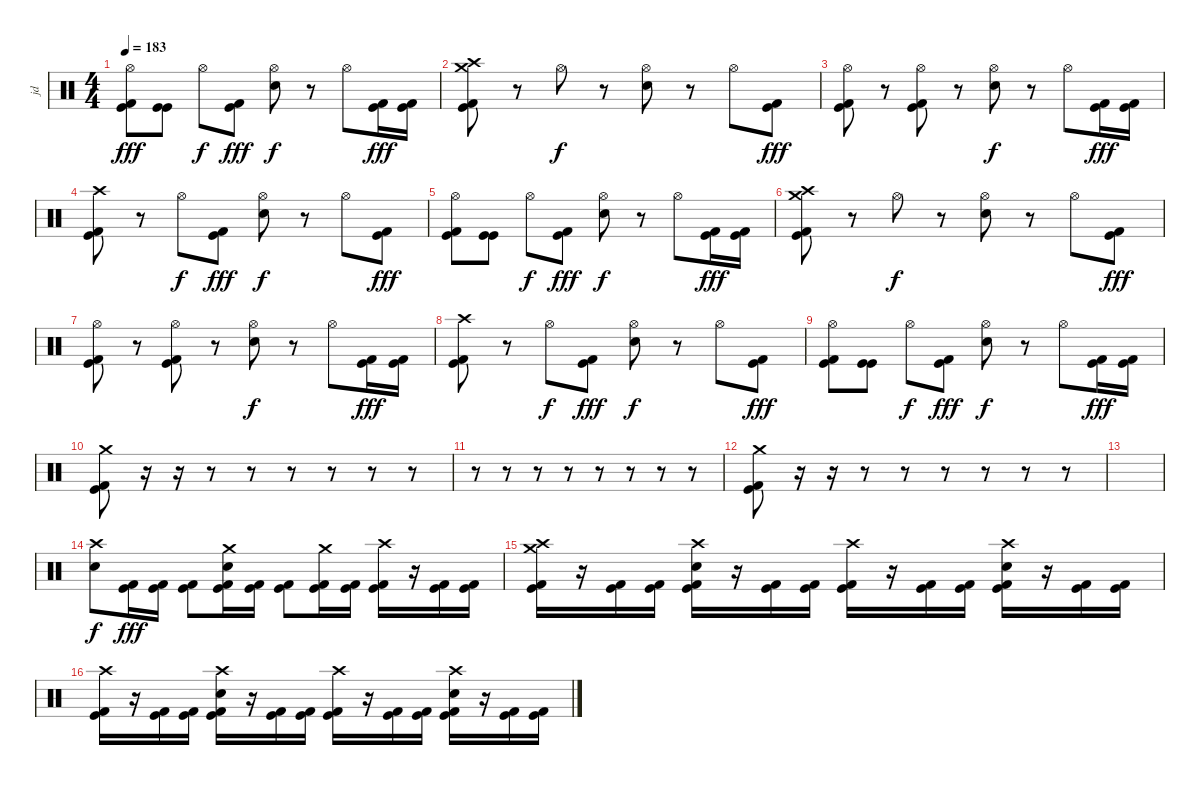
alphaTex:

\track ("jd" "jd") {instrument percussion}
\staff {score}
\articulation defaults
\ts (4 4)
\tempo 183
\clef neutral
\ks c
("Kick (hit)" "Kick (hit) 2" "Hi-Hat (open)").8{dy fff} ("Kick (hit)" "Kick (hit)").8 "Hi-Hat (open)".8{dy f} ("Kick (hit)" "Kick (hit) 2").8{dy fff} ("Electric Snare (hit)" "Hi-Hat (open)").8{dy f} r.8 "Hi-Hat (open)".8 ("Kick (hit)" "Kick (hit) 2").16{dy fff} ("Kick (hit)" "Kick (hit) 2").16 |
("Kick (hit)" "Kick (hit) 2" "Crash high (hit)" "Crash medium (hit)").8 r.8 "Hi-Hat (open)".8{dy f} r.8 ("Electric Snare (hit)" "Hi-Hat (open)").8 r.8 "Hi-Hat (open)".8 ("Kick (hit)" "Kick (hit) 2").8{dy fff} |
("Kick (hit)" "Kick (hit) 2" "Hi-Hat (open)").8 r.8 ("Kick (hit)" "Kick (hit) 2" "Hi-Hat (open)").8 r.8 ("Electric Snare (hit)" "Hi-Hat (open)").8{dy f} r.8 "Hi-Hat (open)".8 ("Kick (hit)" "Kick (hit) 2").16{dy fff} ("Kick (hit)" "Kick (hit) 2").16 |
("Kick (hit)" "Kick (hit) 2" "Crash high (hit)").8 r.8 "Hi-Hat (open)".8{dy f} ("Kick (hit)" "Kick (hit) 2").8{dy fff} ("Electric Snare (hit)" "Hi-Hat (open)").8{dy f} r.8 "Hi-Hat (open)".8 ("Kick (hit)" "Kick (hit) 2").8{dy fff} |
("Kick (hit)" "Kick (hit) 2" "Hi-Hat (open)").8 ("Kick (hit)" "Kick (hit)").8 "Hi-Hat (open)".8{dy f} ("Kick (hit)" "Kick (hit) 2").8{dy fff} ("Electric Snare (hit)" "Hi-Hat (open)").8{dy f} r.8 "Hi-Hat (open)".8 ("Kick (hit)" "Kick (hit) 2").16{dy fff} ("Kick (hit)" "Kick (hit) 2").16 |
("Kick (hit)" "Kick (hit) 2" "Crash high (hit)" "Crash medium (hit)").8 r.8 "Hi-Hat (open)".8{dy f} r.8 ("Electric Snare (hit)" "Hi-Hat (open)").8 r.8 "Hi-Hat (open)".8 ("Kick (hit)" "Kick (hit) 2").8{dy fff} |
("Kick (hit)" "Kick (hit) 2" "Hi-Hat (open)").8 r.8 ("Kick (hit)" "Kick (hit) 2" "Hi-Hat (open)").8 r.8 ("Electric Snare (hit)" "Hi-Hat (open)").8{dy f} r.8 "Hi-Hat (open)".8 ("Kick (hit)" "Kick (hit) 2").16{dy fff} ("Kick (hit)" "Kick (hit) 2").16 |
("Kick (hit)" "Kick (hit) 2" "Crash high (hit)").8 r.8 "Hi-Hat (open)".8{dy f} ("Kick (hit)" "Kick (hit) 2").8{dy fff} ("Electric Snare (hit)" "Hi-Hat (open)").8{dy f} r.8 "Hi-Hat (open)".8 ("Kick (hit)" "Kick (hit) 2").8{dy fff} |
("Kick (hit)" "Kick (hit) 2" "Hi-Hat (open)").8 ("Kick (hit)" "Kick (hit)").8 "Hi-Hat (open)".8{dy f} ("Kick (hit)" "Kick (hit) 2").8{dy fff} ("Electric Snare (hit)" "Hi-Hat (open)").8{dy f} r.8 "Hi-Hat (open)".8 ("Kick (hit)" "Kick (hit) 2").16{dy fff} ("Kick (hit)" "Kick (hit) 2").16 |
("Kick (hit)" "Kick (hit) 2" "Crash medium (hit)").8 r.16 r.16{volume 0} r.8 r.8 r.8 r.8 r.8 r.8 |
r.8 r.8 r.8 r.8 r.8 r.8 r.8 r.8{volume 13} |
("Kick (hit)" "Kick (hit) 2" "Crash medium (hit)").8 r.16 r.16{volume 0} r.8 r.8 r.8 r.8 r.8 r.8{volume 13} |
|
("Electric Snare (hit)" "Crash high (hit)").8{dy f} ("Kick (hit)" "Kick (hit) 2").16{dy fff} ("Kick (hit)" "Kick (hit) 2").16 ("Kick (hit)" "Kick (hit) 2").8 ("Kick (hit)" "Kick (hit) 2" "Electric Snare (hit)" "Crash medium (hit)").16 ("Kick (hit)" "Kick (hit) 2").16 ("Kick (hit)" "Kick (hit) 2").8 ("Kick (hit)" "Kick (hit) 2" "Crash medium (hit)").16 ("Kick (hit)" "Kick (hit) 2").16 ("Kick (hit)" "Kick (hit) 2" "Crash high (hit)").16 r.16 ("Kick (hit)" "Kick (hit) 2").16 ("Kick (hit)" "Kick (hit) 2").16 |
("Kick (hit)" "Kick (hit) 2" "Crash medium (hit)" "Crash high (hit)").16 r.16 ("Kick (hit)" "Kick (hit) 2").16 ("Kick (hit)" "Kick (hit) 2").16 ("Kick (hit)" "Kick (hit) 2" "Electric Snare (hit)" "Crash high (hit)").16 r.16 ("Kick (hit)" "Kick (hit) 2").16 ("Kick (hit)" "Kick (hit) 2").16 ("Kick (hit)" "Kick (hit) 2" "Crash high (hit)").16 r.16 ("Kick (hit)" "Kick (hit) 2").16 ("Kick (hit)" "Kick (hit) 2").16 ("Kick (hit)" "Kick (hit) 2" "Electric Snare (hit)" "Crash high (hit)").16 r.16 ("Kick (hit)" "Kick (hit) 2").16 ("Kick (hit)" "Kick (hit) 2").16 |
("Kick (hit)" "Kick (hit) 2" "Crash high (hit)").16 r.16 ("Kick (hit)" "Kick (hit) 2").16 ("Kick (hit)" "Kick (hit) 2").16 ("Kick (hit)" "Kick (hit) 2" "Electric Snare (hit)" "Crash high (hit)").16 r.16 ("Kick (hit)" "Kick (hit) 2").16 ("Kick (hit)" "Kick (hit) 2").16 ("Kick (hit)" "Kick (hit) 2" "Crash high (hit)").16 r.16 ("Kick (hit)" "Kick (hit) 2").16 ("Kick (hit)" "Kick (hit) 2").16 ("Kick (hit)" "Kick (hit) 2" "Electric Snare (hit)" "Crash high (hit)").16 r.16 ("Kick (hit)" "Kick (hit) 2").16 ("Kick (hit)" "Kick (hit) 2").16
